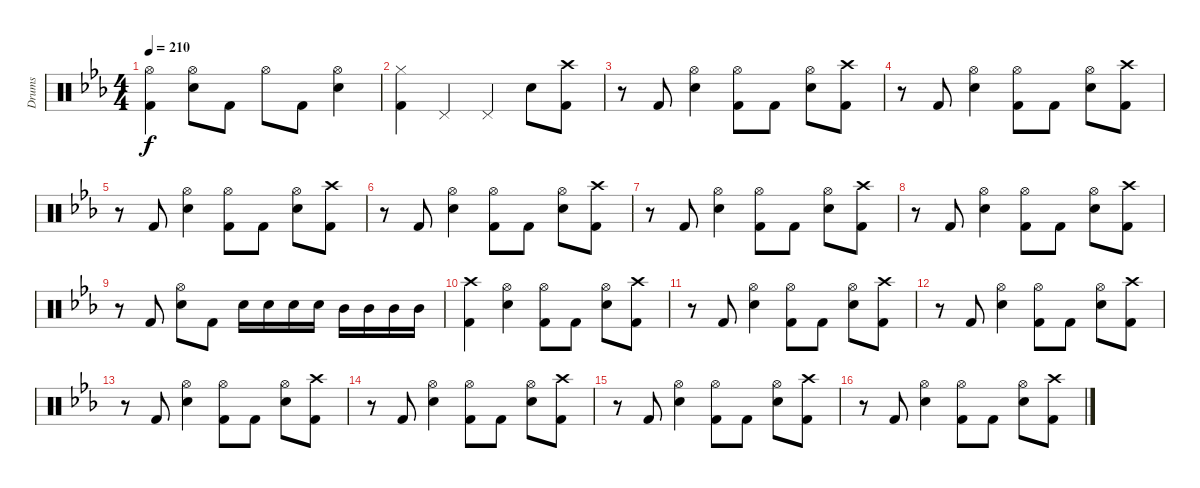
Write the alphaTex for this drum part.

\track ("Drums" "Drums") {instrument percussion}
\staff {score}
\articulation defaults
\ts (4 4)
\tempo 210
\clef neutral
\ks cminor
("Kick (hit) 2" "Hi-Hat (open)").4{dy f} ("Hi-Hat (open)" "Snare (hit) 2").8 "Kick (hit) 2".8 "Hi-Hat (open)".8 "Kick (hit) 2".8 ("Hi-Hat (open)" "Snare (hit) 2").4 |
("Kick (hit) 2" "Hi-Hat (closed)").4 "Pedal Hi-Hat (hit)".4 "Pedal Hi-Hat (hit)".4 "Snare (hit) 2".8 ("Crash high (hit)" "Kick (hit) 2").8 |
r.8 "Kick (hit) 2".8 ("Hi-Hat (open)" "Snare (hit) 2").4 ("Hi-Hat (open)" "Kick (hit) 2").8 "Kick (hit) 2".8 ("Hi-Hat (open)" "Snare (hit) 2").8 ("Kick (hit) 2" "Crash high (hit)").8 |
r.8 "Kick (hit) 2".8 ("Hi-Hat (open)" "Snare (hit) 2").4 ("Hi-Hat (open)" "Kick (hit) 2").8 "Kick (hit) 2".8 ("Hi-Hat (open)" "Snare (hit) 2").8 ("Kick (hit) 2" "Crash high (hit)").8 |
r.8 "Kick (hit) 2".8 ("Hi-Hat (open)" "Snare (hit) 2").4 ("Hi-Hat (open)" "Kick (hit) 2").8 "Kick (hit) 2".8 ("Hi-Hat (open)" "Snare (hit) 2").8 ("Kick (hit) 2" "Crash high (hit)").8 |
r.8 "Kick (hit) 2".8 ("Hi-Hat (open)" "Snare (hit) 2").4 ("Hi-Hat (open)" "Kick (hit) 2").8 "Kick (hit) 2".8 ("Hi-Hat (open)" "Snare (hit) 2").8 ("Kick (hit) 2" "Crash high (hit)").8 |
r.8 "Kick (hit) 2".8 ("Hi-Hat (open)" "Snare (hit) 2").4 ("Hi-Hat (open)" "Kick (hit) 2").8 "Kick (hit) 2".8 ("Hi-Hat (open)" "Snare (hit) 2").8 ("Kick (hit) 2" "Crash high (hit)").8 |
r.8 "Kick (hit) 2".8 ("Hi-Hat (open)" "Snare (hit) 2").4 ("Hi-Hat (open)" "Kick (hit) 2").8 "Kick (hit) 2".8 ("Hi-Hat (open)" "Snare (hit) 2").8 ("Kick (hit) 2" "Crash high (hit)").8 |
r.8 "Kick (hit) 2".8 ("Hi-Hat (open)" "Snare (hit) 2").8 "Kick (hit) 2".8 "Snare (hit) 2".16 "Snare (hit) 2".16 "Snare (hit) 2".16 "Snare (hit) 2".16 "Mid Tom (hit)".16 "Mid Tom (hit)".16 "Mid Tom (hit)".16 "Mid Tom (hit)".16 |
("Crash high (hit)" "Kick (hit) 2").4 ("Hi-Hat (open)" "Snare (hit) 2").4 ("Kick (hit) 2" "Hi-Hat (open)").8 "Kick (hit) 2".8 ("Hi-Hat (open)" "Snare (hit) 2").8 ("Crash high (hit)" "Kick (hit) 2").8 |
r.8 "Kick (hit) 2".8 ("Hi-Hat (open)" "Snare (hit) 2").4 ("Hi-Hat (open)" "Kick (hit) 2").8 "Kick (hit) 2".8 ("Hi-Hat (open)" "Snare (hit) 2").8 ("Kick (hit) 2" "Crash high (hit)").8 |
r.8 "Kick (hit) 2".8 ("Hi-Hat (open)" "Snare (hit) 2").4 ("Hi-Hat (open)" "Kick (hit) 2").8 "Kick (hit) 2".8 ("Hi-Hat (open)" "Snare (hit) 2").8 ("Kick (hit) 2" "Crash high (hit)").8 |
r.8 "Kick (hit) 2".8 ("Hi-Hat (open)" "Snare (hit) 2").4 ("Hi-Hat (open)" "Kick (hit) 2").8 "Kick (hit) 2".8 ("Hi-Hat (open)" "Snare (hit) 2").8 ("Kick (hit) 2" "Crash high (hit)").8 |
r.8 "Kick (hit) 2".8 ("Hi-Hat (open)" "Snare (hit) 2").4 ("Hi-Hat (open)" "Kick (hit) 2").8 "Kick (hit) 2".8 ("Hi-Hat (open)" "Snare (hit) 2").8 ("Kick (hit) 2" "Crash high (hit)").8 |
r.8 "Kick (hit) 2".8 ("Hi-Hat (open)" "Snare (hit) 2").4 ("Hi-Hat (open)" "Kick (hit) 2").8 "Kick (hit) 2".8 ("Hi-Hat (open)" "Snare (hit) 2").8 ("Kick (hit) 2" "Crash high (hit)").8 |
r.8 "Kick (hit) 2".8 ("Hi-Hat (open)" "Snare (hit) 2").4 ("Hi-Hat (open)" "Kick (hit) 2").8 "Kick (hit) 2".8 ("Hi-Hat (open)" "Snare (hit) 2").8 ("Kick (hit) 2" "Crash high (hit)").8
